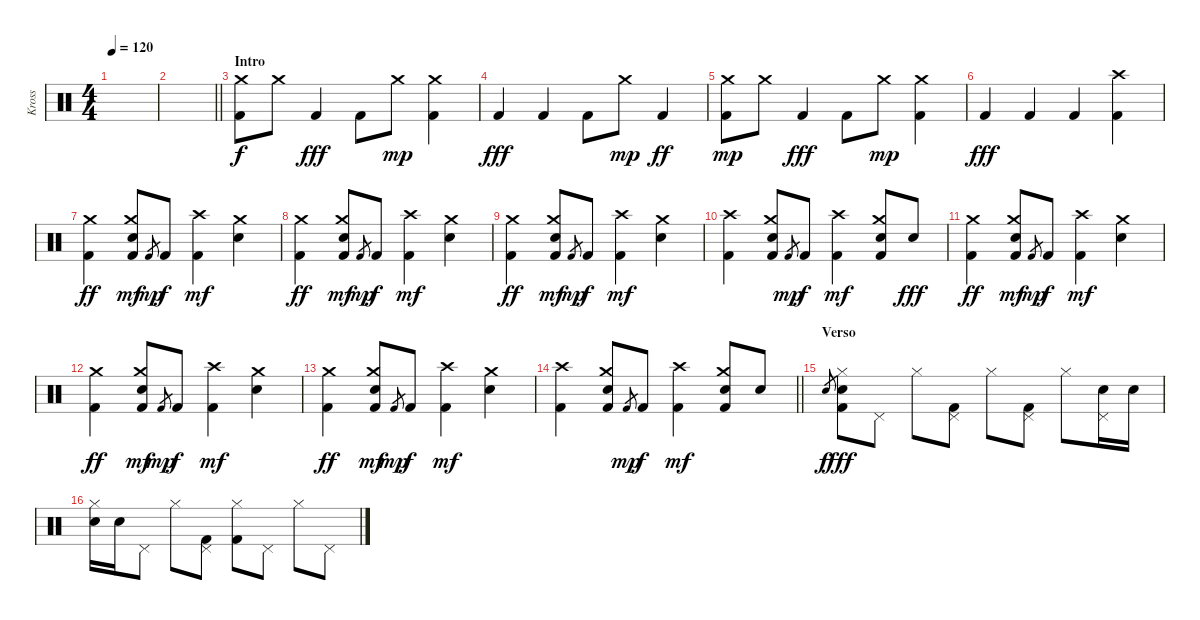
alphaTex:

\track ("Kross" "Kross") {instrument percussion}
\staff {score}
\articulation defaults
\ts (4 4)
\tempo 120
\clef neutral
\ks c
|
\barLineRight lightlight
|
\section ("" "Intro")
("Kick (hit) 2" "Crash medium (hit)").8 "Crash medium (hit)".8 "Kick (hit) 2".4{dy fff} "Kick (hit) 2".8 "Crash medium (hit)".8{dy mp} ("Kick (hit) 2" "Crash medium (hit)").4 |
"Kick (hit) 2".4{dy fff} "Kick (hit) 2".4 "Kick (hit) 2".8 "Crash medium (hit)".8{dy mp} "Kick (hit) 2".4{dy ff} |
("Kick (hit) 2" "Crash medium (hit)").8{dy mp} "Crash medium (hit)".8 "Kick (hit) 2".4{dy fff} "Kick (hit) 2".8 "Crash medium (hit)".8{dy mp} ("Kick (hit) 2" "Crash medium (hit)").4 |
"Kick (hit) 2".4{dy fff} "Kick (hit) 2".4 "Kick (hit) 2".4 ("Kick (hit) 2" "Crash high (hit)").4 |
("Kick (hit) 2" "Crash medium (hit)").4{dy ff} ("Kick (hit) 2" "Crash medium (hit)" "Snare (hit) 2").8{dy mf} "Kick (hit) 2".8{gr dy mp} "Kick (hit) 2".8{dy f} ("Kick (hit) 2" "Crash high (hit)").4{dy mf} ("Crash medium (hit)" "Electric Snare (hit)").4 |
("Kick (hit) 2" "Crash medium (hit)").4{dy ff} ("Kick (hit) 2" "Crash medium (hit)" "Snare (hit) 2").8{dy mf} "Kick (hit) 2".8{gr dy mp} "Kick (hit) 2".8{dy f} ("Kick (hit) 2" "Crash high (hit)").4{dy mf} ("Crash medium (hit)" "Electric Snare (hit)").4 |
("Kick (hit) 2" "Crash medium (hit)").4{dy ff} ("Kick (hit) 2" "Crash medium (hit)" "Snare (hit) 2").8{dy mf} "Kick (hit) 2".8{gr dy mp} "Kick (hit) 2".8{dy f} ("Kick (hit) 2" "Crash high (hit)").4{dy mf} ("Crash medium (hit)" "Electric Snare (hit)").4 |
("Kick (hit) 2" "Crash high (hit)").4 ("Kick (hit) 2" "Crash medium (hit)" "Electric Snare (hit)").8 "Kick (hit) 2".8{gr dy mp} "Kick (hit) 2".8{dy f} ("Kick (hit) 2" "Crash high (hit)").4{dy mf} ("Kick (hit) 2" "Crash medium (hit)" "Electric Snare (hit)").8 "Electric Snare (hit)".8{dy fff} |
("Kick (hit) 2" "Crash medium (hit)").4{dy ff} ("Kick (hit) 2" "Crash medium (hit)" "Snare (hit) 2").8{dy mf} "Kick (hit) 2".8{gr dy mp} "Kick (hit) 2".8{dy f} ("Kick (hit) 2" "Crash high (hit)").4{dy mf} ("Crash medium (hit)" "Electric Snare (hit)").4 |
("Kick (hit) 2" "Crash medium (hit)").4{dy ff} ("Kick (hit) 2" "Crash medium (hit)" "Snare (hit) 2").8{dy mf} "Kick (hit) 2".8{gr dy mp} "Kick (hit) 2".8{dy f} ("Kick (hit) 2" "Crash high (hit)").4{dy mf} ("Crash medium (hit)" "Electric Snare (hit)").4 |
("Kick (hit) 2" "Crash medium (hit)").4{dy ff} ("Kick (hit) 2" "Crash medium (hit)" "Snare (hit) 2").8{dy mf} "Kick (hit) 2".8{gr dy mp} "Kick (hit) 2".8{dy f} ("Kick (hit) 2" "Crash high (hit)").4{dy mf} ("Crash medium (hit)" "Electric Snare (hit)").4 |
\barLineRight lightlight
("Kick (hit) 2" "Crash high (hit)").4 ("Kick (hit) 2" "Crash medium (hit)" "Electric Snare (hit)").8 "Kick (hit) 2".8{gr dy mp} "Kick (hit) 2".8{dy f} ("Kick (hit) 2" "Crash high (hit)").4{dy mf} ("Kick (hit) 2" "Crash medium (hit)" "Electric Snare (hit)").8 "Electric Snare (hit)".8 |
\section ("" "Verso")
"Electric Snare (hit)".8{gr dy f} ("Electric Snare (hit)" "Kick (hit) 2" "Hi-Hat (closed)").8{dy fff} "Pedal Hi-Hat (hit)".8 "Hi-Hat (closed)".8 ("Kick (hit) 2" "Pedal Hi-Hat (hit)").8 "Hi-Hat (closed)".8 ("Kick (hit) 2" "Pedal Hi-Hat (hit)").8 "Hi-Hat (closed)".8 ("Electric Snare (hit)" "Pedal Hi-Hat (hit)").16 "Electric Snare (hit)".16 |
("Electric Snare (hit)" "Hi-Hat (closed)").16 "Electric Snare (hit)".16 "Pedal Hi-Hat (hit)".8 "Hi-Hat (closed)".8 ("Kick (hit) 2" "Pedal Hi-Hat (hit)").8 ("Kick (hit) 2" "Hi-Hat (closed)").8 "Pedal Hi-Hat (hit)".8 "Hi-Hat (closed)".8 "Pedal Hi-Hat (hit)".8
